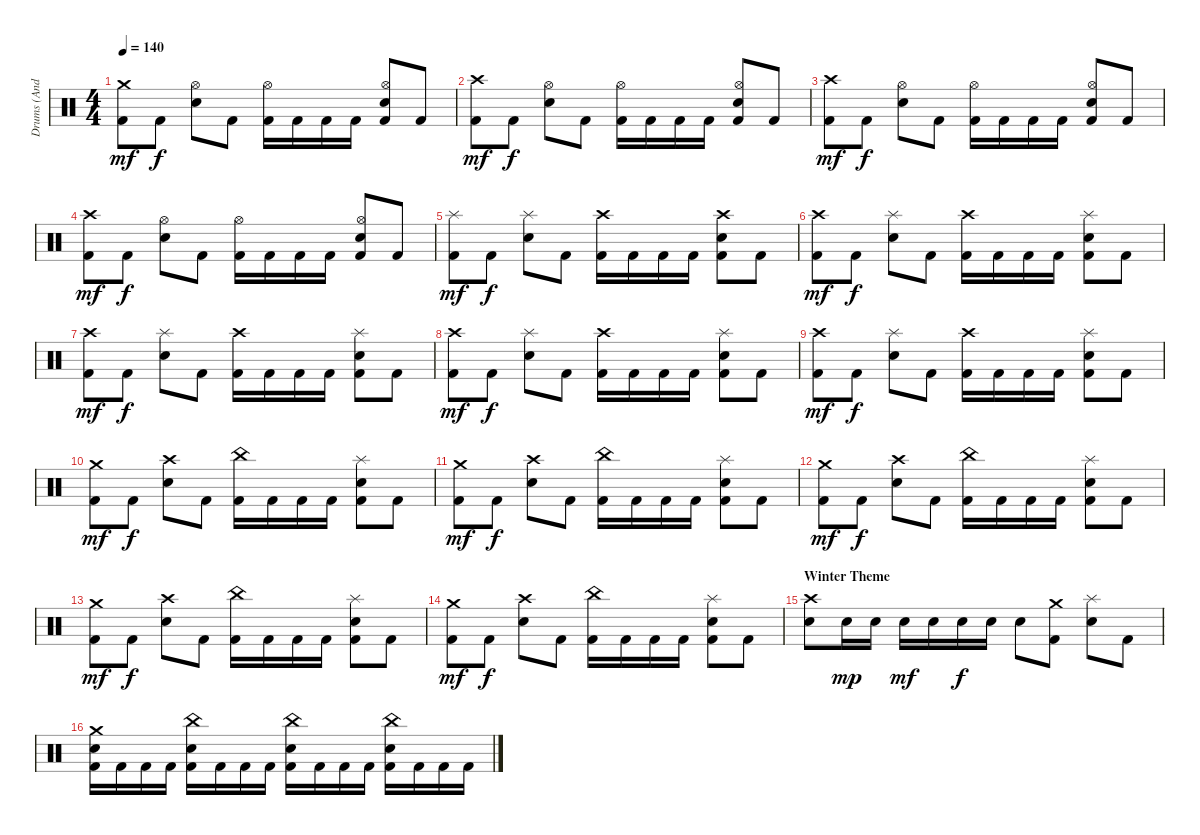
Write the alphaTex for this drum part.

\track ("Drums (Andy C)" "Drums (And") {instrument percussion}
\staff {score}
\articulation defaults
\ts (4 4)
\tempo 140
\clef neutral
\ks c
("Crash medium (hit)" "Kick (hit) 2").8{dy mf} "Kick (hit) 2".8{dy f} ("Hi-Hat (open)" "Electric Snare (hit)").8 "Kick (hit) 2".8 ("Hi-Hat (open)" "Kick (hit) 2").16 "Kick (hit) 2".16 "Kick (hit) 2".16 "Kick (hit) 2".16 ("Hi-Hat (open)" "Kick (hit) 2" "Electric Snare (hit)").8 "Kick (hit) 2".8 |
("Crash high (hit)" "Kick (hit) 2").8{dy mf} "Kick (hit) 2".8{dy f} ("Hi-Hat (open)" "Electric Snare (hit)").8 "Kick (hit) 2".8 ("Hi-Hat (open)" "Kick (hit) 2").16 "Kick (hit) 2".16 "Kick (hit) 2".16 "Kick (hit) 2".16 ("Hi-Hat (open)" "Kick (hit) 2" "Electric Snare (hit)").8 "Kick (hit) 2".8 |
("Crash high (hit)" "Kick (hit) 2").8{dy mf} "Kick (hit) 2".8{dy f} ("Hi-Hat (open)" "Electric Snare (hit)").8 "Kick (hit) 2".8 ("Hi-Hat (open)" "Kick (hit) 2").16 "Kick (hit) 2".16 "Kick (hit) 2".16 "Kick (hit) 2".16 ("Hi-Hat (open)" "Kick (hit) 2" "Electric Snare (hit)").8 "Kick (hit) 2".8 |
("Crash high (hit)" "Kick (hit) 2").8{dy mf} "Kick (hit) 2".8{dy f} ("Hi-Hat (open)" "Electric Snare (hit)").8 "Kick (hit) 2".8 ("Hi-Hat (open)" "Kick (hit) 2").16 "Kick (hit) 2".16 "Kick (hit) 2".16 "Kick (hit) 2".16 ("Hi-Hat (open)" "Kick (hit) 2" "Electric Snare (hit)").8 "Kick (hit) 2".8 |
("Splash (hit)" "Kick (hit) 2").8{dy mf} "Kick (hit) 2".8{dy f} ("Splash (hit)" "Electric Snare (hit)").8 "Kick (hit) 2".8 ("Crash high (hit)" "Kick (hit) 2").16 "Kick (hit) 2".16 "Kick (hit) 2".16 "Kick (hit) 2".16 ("Crash high (hit)" "Kick (hit) 2" "Electric Snare (hit)").8 "Kick (hit) 2".8 |
("Crash high (hit)" "Kick (hit) 2").8{dy mf} "Kick (hit) 2".8{dy f} ("Splash (hit)" "Electric Snare (hit)").8 "Kick (hit) 2".8 ("Crash high (hit)" "Kick (hit) 2").16 "Kick (hit) 2".16 "Kick (hit) 2".16 "Kick (hit) 2".16 ("Splash (hit)" "Kick (hit) 2" "Electric Snare (hit)").8 "Kick (hit) 2".8 |
("Crash high (hit)" "Kick (hit) 2").8{dy mf} "Kick (hit) 2".8{dy f} ("Splash (hit)" "Electric Snare (hit)").8 "Kick (hit) 2".8 ("Crash high (hit)" "Kick (hit) 2").16 "Kick (hit) 2".16 "Kick (hit) 2".16 "Kick (hit) 2".16 ("Splash (hit)" "Kick (hit) 2" "Electric Snare (hit)").8 "Kick (hit) 2".8 |
("Crash high (hit)" "Kick (hit) 2").8{dy mf} "Kick (hit) 2".8{dy f} ("Splash (hit)" "Electric Snare (hit)").8 "Kick (hit) 2".8 ("Crash high (hit)" "Kick (hit) 2").16 "Kick (hit) 2".16 "Kick (hit) 2".16 "Kick (hit) 2".16 ("Splash (hit)" "Kick (hit) 2" "Electric Snare (hit)").8 "Kick (hit) 2".8 |
("Crash high (hit)" "Kick (hit) 2").8{dy mf} "Kick (hit) 2".8{dy f} ("Splash (hit)" "Electric Snare (hit)").8 "Kick (hit) 2".8 ("Crash high (hit)" "Kick (hit) 2").16 "Kick (hit) 2".16 "Kick (hit) 2".16 "Kick (hit) 2".16 ("Splash (hit)" "Kick (hit) 2" "Electric Snare (hit)").8 "Kick (hit) 2".8 |
("Crash medium (hit)" "Kick (hit) 2").8{dy mf} "Kick (hit) 2".8{dy f} ("Crash high (hit)" "Electric Snare (hit)").8 "Kick (hit) 2".8 ("China (hit)" "Kick (hit) 2").16 "Kick (hit) 2".16 "Kick (hit) 2".16 "Kick (hit) 2".16 ("Splash (hit)" "Kick (hit) 2" "Electric Snare (hit)").8 "Kick (hit) 2".8 |
("Crash medium (hit)" "Kick (hit) 2").8{dy mf} "Kick (hit) 2".8{dy f} ("Crash high (hit)" "Electric Snare (hit)").8 "Kick (hit) 2".8 ("China (hit)" "Kick (hit) 2").16 "Kick (hit) 2".16 "Kick (hit) 2".16 "Kick (hit) 2".16 ("Splash (hit)" "Kick (hit) 2" "Electric Snare (hit)").8 "Kick (hit) 2".8 |
("Crash medium (hit)" "Kick (hit) 2").8{dy mf} "Kick (hit) 2".8{dy f} ("Crash high (hit)" "Electric Snare (hit)").8 "Kick (hit) 2".8 ("China (hit)" "Kick (hit) 2").16 "Kick (hit) 2".16 "Kick (hit) 2".16 "Kick (hit) 2".16 ("Splash (hit)" "Kick (hit) 2" "Electric Snare (hit)").8 "Kick (hit) 2".8 |
("Crash medium (hit)" "Kick (hit) 2").8{dy mf} "Kick (hit) 2".8{dy f} ("Crash high (hit)" "Electric Snare (hit)").8 "Kick (hit) 2".8 ("China (hit)" "Kick (hit) 2").16 "Kick (hit) 2".16 "Kick (hit) 2".16 "Kick (hit) 2".16 ("Splash (hit)" "Kick (hit) 2" "Electric Snare (hit)").8 "Kick (hit) 2".8 |
("Crash medium (hit)" "Kick (hit) 2").8{dy mf} "Kick (hit) 2".8{dy f} ("Crash high (hit)" "Electric Snare (hit)").8 "Kick (hit) 2".8 ("China (hit)" "Kick (hit) 2").16 "Kick (hit) 2".16 "Kick (hit) 2".16 "Kick (hit) 2".16 ("Splash (hit)" "Kick (hit) 2" "Electric Snare (hit)").8 "Kick (hit) 2".8 |
\section ("" "Winter Theme")
("Crash high (hit)" "Electric Snare (hit)").8 "Electric Snare (hit)".16{dy mp} "Electric Snare (hit)".16 "Electric Snare (hit)".16{dy mf} "Electric Snare (hit)".16 "Electric Snare (hit)".16{dy f} "Electric Snare (hit)".16 "Electric Snare (hit)".8 ("Crash medium (hit)" "Kick (hit) 2").8 ("Splash (hit)" "Electric Snare (hit)").8 "Kick (hit) 2".8 |
("Crash medium (hit)" "Kick (hit) 2" "Electric Snare (hit)").16 "Kick (hit) 2".16 "Kick (hit) 2".16 "Kick (hit) 2".16 ("China (hit)" "Kick (hit) 2" "Electric Snare (hit)").16 "Kick (hit) 2".16 "Kick (hit) 2".16 "Kick (hit) 2".16 ("China (hit)" "Kick (hit) 2" "Electric Snare (hit)").16 "Kick (hit) 2".16 "Kick (hit) 2".16 "Kick (hit) 2".16 ("China (hit)" "Kick (hit) 2" "Electric Snare (hit)").16 "Kick (hit) 2".16 "Kick (hit) 2".16 "Kick (hit) 2".16
